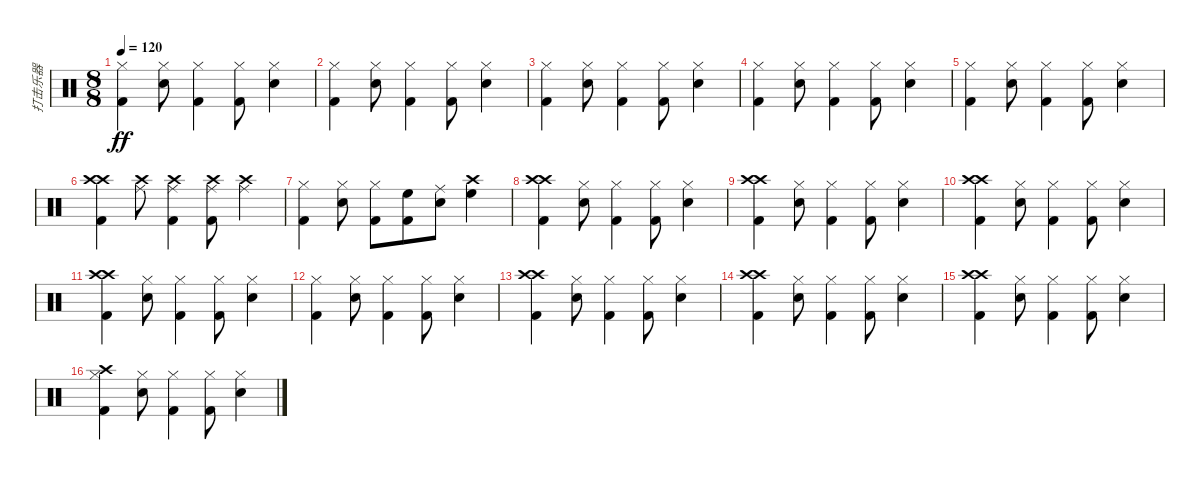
\track ("打击乐器" "打击乐器") {instrument percussion}
\staff {score}
\articulation defaults
\ts (8 8)
\tempo 120
\clef neutral
\ks c
("Kick (hit) 2" "Hi-Hat (closed)").4{dy ff} ("Snare (hit) 2" "Hi-Hat (closed)").8 ("Kick (hit) 2" "Hi-Hat (closed)").4 ("Kick (hit) 2" "Hi-Hat (closed)").8 ("Snare (hit) 2" "Hi-Hat (closed)").4 |
("Kick (hit) 2" "Hi-Hat (closed)").4 ("Snare (hit) 2" "Hi-Hat (closed)").8 ("Kick (hit) 2" "Hi-Hat (closed)").4 ("Kick (hit) 2" "Hi-Hat (closed)").8 ("Snare (hit) 2" "Hi-Hat (closed)").4 |
("Kick (hit) 2" "Hi-Hat (closed)").4 ("Snare (hit) 2" "Hi-Hat (closed)").8 ("Kick (hit) 2" "Hi-Hat (closed)").4 ("Kick (hit) 2" "Hi-Hat (closed)").8 ("Snare (hit) 2" "Hi-Hat (closed)").4 |
("Kick (hit) 2" "Hi-Hat (closed)").4 ("Snare (hit) 2" "Hi-Hat (closed)").8 ("Kick (hit) 2" "Hi-Hat (closed)").4 ("Kick (hit) 2" "Hi-Hat (closed)").8 ("Snare (hit) 2" "Hi-Hat (closed)").4 |
("Kick (hit) 2" "Hi-Hat (closed)").4 ("Snare (hit) 2" "Hi-Hat (closed)").8 ("Kick (hit) 2" "Hi-Hat (closed)").4 ("Kick (hit) 2" "Hi-Hat (closed)").8 ("Snare (hit) 2" "Hi-Hat (closed)").4 |
("Crash high (hit)" "Kick (hit) 2" "Crash high (hit)").4 ("Crash high (hit)" "Ride (middle)").8 ("Crash high (hit)" "Kick (hit) 2" "Ride (middle)").4 ("Crash high (hit)" "Kick (hit) 2" "Ride (middle)").8 ("Crash high (hit)" "Ride (middle)").4 |
("Kick (hit) 2" "Hi-Hat (closed)").4 ("Snare (hit) 2" "Hi-Hat (closed)").8 ("Kick (hit) 2" "Hi-Hat (closed)").8 ("Kick (hit) 2" "High Floor Tom (hit)").8 ("Snare (hit) 2" "Ride (middle)").8 ("Crash high (hit)" "High Floor Tom (hit)").4 |
("Crash high (hit)" "Kick (hit) 2" "Crash high (hit)").4 ("Snare (hit) 2" "Hi-Hat (closed)").8 ("Kick (hit) 2" "Hi-Hat (closed)").4 ("Kick (hit) 2" "Hi-Hat (closed)").8 ("Snare (hit) 2" "Hi-Hat (closed)").4 |
("Crash high (hit)" "Kick (hit) 2" "Crash high (hit)").4 ("Snare (hit) 2" "Hi-Hat (closed)").8 ("Kick (hit) 2" "Hi-Hat (closed)").4 ("Kick (hit) 2" "Hi-Hat (closed)").8 ("Snare (hit) 2" "Hi-Hat (closed)").4 |
("Crash high (hit)" "Kick (hit) 2" "Crash high (hit)").4 ("Snare (hit) 2" "Hi-Hat (closed)").8 ("Kick (hit) 2" "Hi-Hat (closed)").4 ("Kick (hit) 2" "Hi-Hat (closed)").8 ("Snare (hit) 2" "Hi-Hat (closed)").4 |
("Crash high (hit)" "Kick (hit) 2" "Crash high (hit)").4 ("Snare (hit) 2" "Hi-Hat (closed)").8 ("Kick (hit) 2" "Hi-Hat (closed)").4 ("Kick (hit) 2" "Hi-Hat (closed)").8 ("Snare (hit) 2" "Hi-Hat (closed)").4 |
("Kick (hit) 2" "Hi-Hat (closed)").4 ("Snare (hit) 2" "Hi-Hat (closed)").8 ("Kick (hit) 2" "Hi-Hat (closed)").4 ("Kick (hit) 2" "Hi-Hat (closed)").8 ("Snare (hit) 2" "Hi-Hat (closed)").4 |
("Crash high (hit)" "Kick (hit) 2" "Crash high (hit)").4 ("Snare (hit) 2" "Hi-Hat (closed)").8 ("Kick (hit) 2" "Hi-Hat (closed)").4 ("Kick (hit) 2" "Hi-Hat (closed)").8 ("Snare (hit) 2" "Hi-Hat (closed)").4 |
("Crash high (hit)" "Kick (hit) 2" "Crash high (hit)").4 ("Snare (hit) 2" "Hi-Hat (closed)").8 ("Kick (hit) 2" "Hi-Hat (closed)").4 ("Kick (hit) 2" "Hi-Hat (closed)").8 ("Snare (hit) 2" "Hi-Hat (closed)").4 |
("Crash high (hit)" "Kick (hit) 2" "Crash high (hit)").4 ("Snare (hit) 2" "Hi-Hat (closed)").8 ("Kick (hit) 2" "Hi-Hat (closed)").4 ("Kick (hit) 2" "Hi-Hat (closed)").8 ("Snare (hit) 2" "Hi-Hat (closed)").4 |
("Crash high (hit)" "Kick (hit) 2" "Hi-Hat (closed)").4 ("Snare (hit) 2" "Hi-Hat (closed)").8 ("Kick (hit) 2" "Hi-Hat (closed)").4 ("Kick (hit) 2" "Hi-Hat (closed)").8 ("Snare (hit) 2" "Hi-Hat (closed)").4
